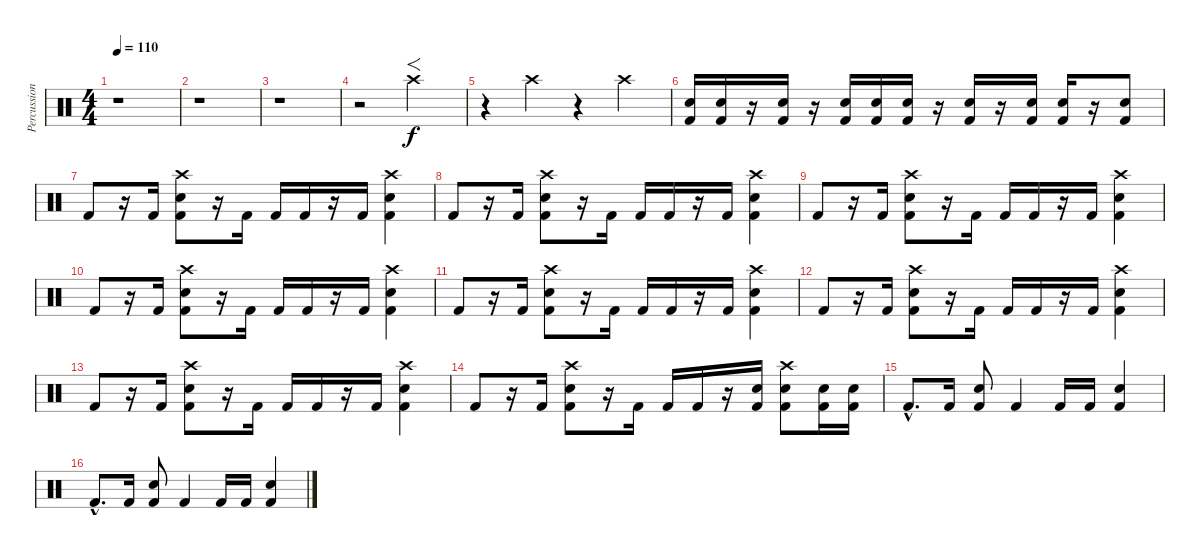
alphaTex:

\track ("Percussioni" "Percussion") {instrument percussion}
\staff {score}
\articulation defaults
\ts (4 4)
\tempo 110
\clef neutral
\ks c
r.1{dy f} |
r.1 |
r.1 |
r.2 "Crash high (hit)".2{f} |
r.4 "Crash high (hit)".4 r.4 "Crash high (hit)".4 |
("Kick (hit) 2" "Snare (hit) 2").16 ("Kick (hit) 2" "Snare (hit) 2").16 r.16 ("Kick (hit) 2" "Snare (hit) 2").16 r.16 ("Kick (hit) 2" "Snare (hit) 2").16 ("Kick (hit) 2" "Snare (hit) 2").16 ("Kick (hit) 2" "Snare (hit) 2").16 r.16 ("Kick (hit) 2" "Snare (hit) 2").16 r.16 ("Kick (hit) 2" "Snare (hit) 2").16 ("Kick (hit) 2" "Snare (hit) 2").16 r.16 ("Kick (hit) 2" "Snare (hit) 2").8 |
"Kick (hit) 2".8 r.16 "Kick (hit) 2".16 ("Snare (hit) 2" "Kick (hit) 2" "Crash high (hit)").8 r.16 "Kick (hit) 2".16 "Kick (hit) 2".16 "Kick (hit) 2".16 r.16 "Kick (hit) 2".16 ("Snare (hit) 2" "Kick (hit) 2" "Crash high (hit)").4 |
"Kick (hit) 2".8 r.16 "Kick (hit) 2".16 ("Snare (hit) 2" "Kick (hit) 2" "Crash high (hit)").8 r.16 "Kick (hit) 2".16 "Kick (hit) 2".16 "Kick (hit) 2".16 r.16 "Kick (hit) 2".16 ("Snare (hit) 2" "Kick (hit) 2" "Crash high (hit)").4 |
"Kick (hit) 2".8 r.16 "Kick (hit) 2".16 ("Snare (hit) 2" "Kick (hit) 2" "Crash high (hit)").8 r.16 "Kick (hit) 2".16 "Kick (hit) 2".16 "Kick (hit) 2".16 r.16 "Kick (hit) 2".16 ("Snare (hit) 2" "Kick (hit) 2" "Crash high (hit)").4 |
"Kick (hit) 2".8 r.16 "Kick (hit) 2".16 ("Snare (hit) 2" "Kick (hit) 2" "Crash high (hit)").8 r.16 "Kick (hit) 2".16 "Kick (hit) 2".16 "Kick (hit) 2".16 r.16 "Kick (hit) 2".16 ("Snare (hit) 2" "Kick (hit) 2" "Crash high (hit)").4 |
"Kick (hit) 2".8 r.16 "Kick (hit) 2".16 ("Snare (hit) 2" "Kick (hit) 2" "Crash high (hit)").8 r.16 "Kick (hit) 2".16 "Kick (hit) 2".16 "Kick (hit) 2".16 r.16 "Kick (hit) 2".16 ("Snare (hit) 2" "Kick (hit) 2" "Crash high (hit)").4 |
"Kick (hit) 2".8 r.16 "Kick (hit) 2".16 ("Snare (hit) 2" "Kick (hit) 2" "Crash high (hit)").8 r.16 "Kick (hit) 2".16 "Kick (hit) 2".16 "Kick (hit) 2".16 r.16 "Kick (hit) 2".16 ("Snare (hit) 2" "Kick (hit) 2" "Crash high (hit)").4 |
"Kick (hit) 2".8 r.16 "Kick (hit) 2".16 ("Snare (hit) 2" "Kick (hit) 2" "Crash high (hit)").8 r.16 "Kick (hit) 2".16 "Kick (hit) 2".16 "Kick (hit) 2".16 r.16 "Kick (hit) 2".16 ("Snare (hit) 2" "Kick (hit) 2" "Crash high (hit)").4 |
"Kick (hit) 2".8 r.16 "Kick (hit) 2".16 ("Snare (hit) 2" "Kick (hit) 2" "Crash high (hit)").8 r.16 "Kick (hit) 2".16 "Kick (hit) 2".16 "Kick (hit) 2".16 r.16 ("Snare (hit) 2" "Kick (hit) 2").16 ("Snare (hit) 2" "Kick (hit) 2" "Crash high (hit)").8 ("Snare (hit) 2" "Kick (hit) 2").16 ("Snare (hit) 2" "Kick (hit) 2").16 |
"Kick (hit) 2"{hac}.8{d} "Kick (hit) 2".16 ("Snare (hit) 2" "Kick (hit) 2").8 "Kick (hit) 2".4 "Kick (hit) 2".16 "Kick (hit) 2".16 ("Snare (hit) 2" "Kick (hit) 2").4 |
"Kick (hit) 2"{hac}.8{d} "Kick (hit) 2".16 ("Snare (hit) 2" "Kick (hit) 2").8 "Kick (hit) 2".4 "Kick (hit) 2".16 "Kick (hit) 2".16 ("Snare (hit) 2" "Kick (hit) 2").4
